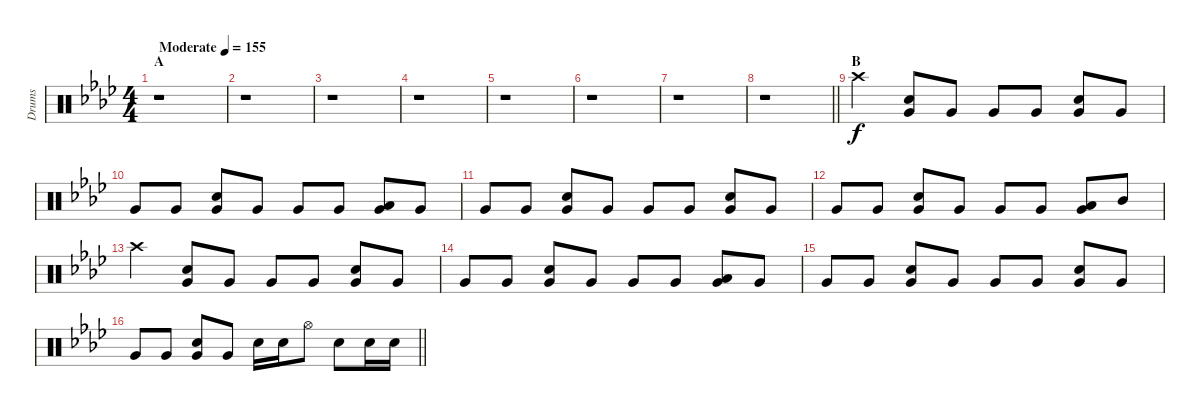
\track ("Drums" "Drums") {instrument percussion}
\staff {score}
\articulation defaults
\ts (4 4)
\section ("" "A")
\tempo (155 "Moderate")
\clef neutral
\ks ab
r.1{dy f} |
r.1 |
r.1 |
r.1 |
r.1 |
r.1 |
r.1 |
\barLineRight lightlight
r.1 |
\section ("" "B")
"Crash high (hit)".4 ("Very Low Tom (hit)" "Snare (hit) 2").8 "Very Low Tom (hit)".8 "Very Low Tom (hit)".8 "Very Low Tom (hit)".8 ("Very Low Tom (hit)" "Snare (hit) 2").8 "Very Low Tom (hit)".8 |
"Very Low Tom (hit)".8 "Very Low Tom (hit)".8 ("Very Low Tom (hit)" "Snare (hit) 2").8 "Very Low Tom (hit)".8 "Very Low Tom (hit)".8 "Very Low Tom (hit)".8 ("Very Low Tom (hit)" "Low Tom (hit)").8 "Very Low Tom (hit)".8 |
"Very Low Tom (hit)".8 "Very Low Tom (hit)".8 ("Very Low Tom (hit)" "Snare (hit) 2").8 "Very Low Tom (hit)".8 "Very Low Tom (hit)".8 "Very Low Tom (hit)".8 ("Very Low Tom (hit)" "Snare (hit) 2").8 "Very Low Tom (hit)".8 |
"Very Low Tom (hit)".8 "Very Low Tom (hit)".8 ("Very Low Tom (hit)" "Snare (hit) 2").8 "Very Low Tom (hit)".8 "Very Low Tom (hit)".8 "Very Low Tom (hit)".8 ("Very Low Tom (hit)" "Low Tom (hit)").8 "Mid Tom (hit)".8 |
"Crash high (hit)".4 ("Very Low Tom (hit)" "Snare (hit) 2").8 "Very Low Tom (hit)".8 "Very Low Tom (hit)".8 "Very Low Tom (hit)".8 ("Very Low Tom (hit)" "Snare (hit) 2").8 "Very Low Tom (hit)".8 |
"Very Low Tom (hit)".8 "Very Low Tom (hit)".8 ("Very Low Tom (hit)" "Snare (hit) 2").8 "Very Low Tom (hit)".8 "Very Low Tom (hit)".8 "Very Low Tom (hit)".8 ("Very Low Tom (hit)" "Low Tom (hit)").8 "Very Low Tom (hit)".8 |
"Very Low Tom (hit)".8 "Very Low Tom (hit)".8 ("Very Low Tom (hit)" "Snare (hit) 2").8 "Very Low Tom (hit)".8 "Very Low Tom (hit)".8 "Very Low Tom (hit)".8 ("Very Low Tom (hit)" "Snare (hit) 2").8 "Very Low Tom (hit)".8 |
\barLineRight lightlight "Very Low Tom (hit)".8 "Very Low Tom (hit)".8
("Very Low Tom (hit)" "Snare (hit) 2").8 "Very Low Tom (hit)".8 "Snare (hit) 2".16 "Snare (hit) 2".16 "Hi-Hat (open)".8 "Snare (hit) 2".8 "Snare (hit) 2".16 "Snare (hit) 2".16
